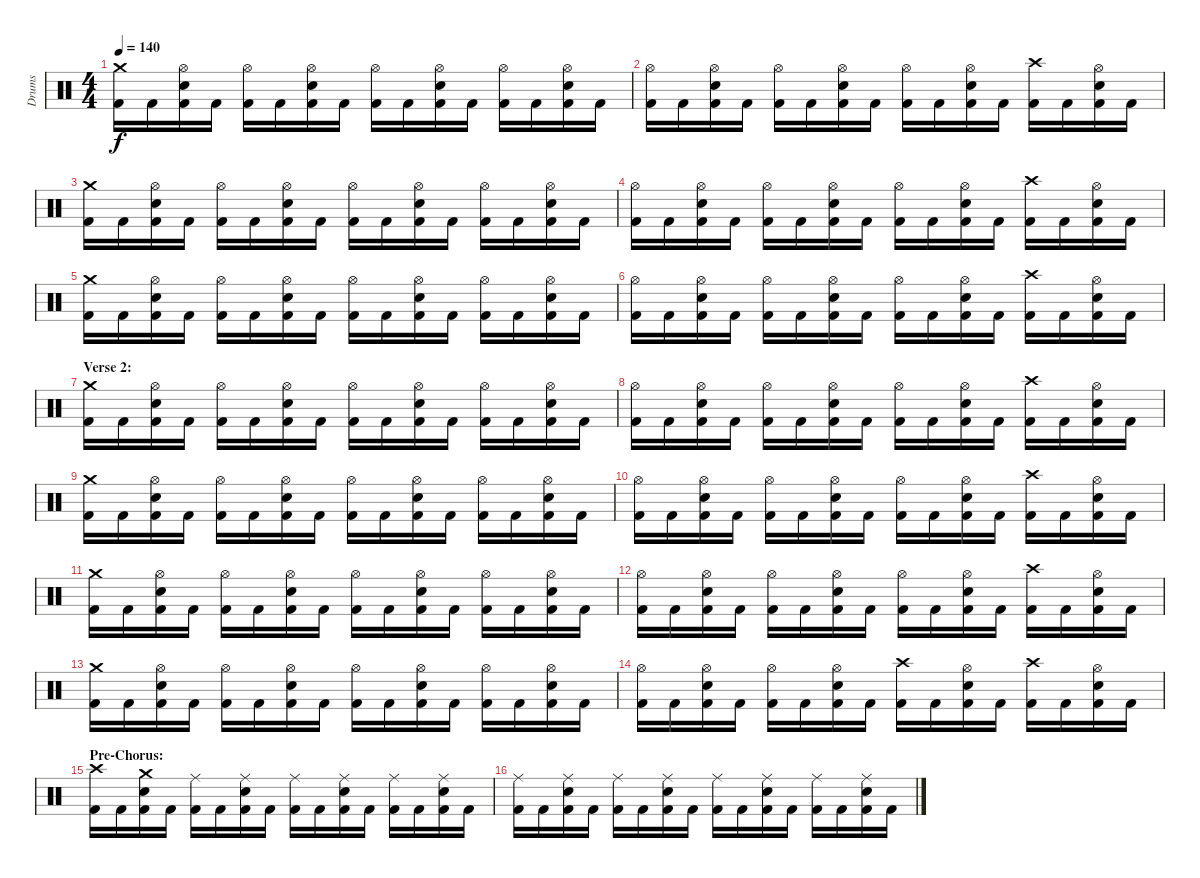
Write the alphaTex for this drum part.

\track ("Drums" "Drums") {instrument percussion}
\staff {score}
\articulation defaults
\ts (4 4)
\tempo 140
\clef neutral
\ks c
("Crash medium (hit)" "Kick (hit) 2").16{dy f} "Kick (hit) 2".16 ("Hi-Hat (open)" "Snare (hit) 2" "Kick (hit) 2").16 "Kick (hit) 2".16 ("Hi-Hat (open)" "Kick (hit) 2").16 "Kick (hit) 2".16 ("Hi-Hat (open)" "Snare (hit) 2" "Kick (hit) 2").16 "Kick (hit) 2".16 ("Hi-Hat (open)" "Kick (hit) 2").16 "Kick (hit) 2".16 ("Hi-Hat (open)" "Snare (hit) 2" "Kick (hit) 2").16 "Kick (hit) 2".16 ("Hi-Hat (open)" "Kick (hit) 2").16 "Kick (hit) 2".16 ("Hi-Hat (open)" "Snare (hit) 2" "Kick (hit) 2").16 "Kick (hit) 2".16 |
("Hi-Hat (open)" "Kick (hit) 2").16 "Kick (hit) 2".16 ("Hi-Hat (open)" "Snare (hit) 2" "Kick (hit) 2").16 "Kick (hit) 2".16 ("Hi-Hat (open)" "Kick (hit) 2").16 "Kick (hit) 2".16 ("Hi-Hat (open)" "Snare (hit) 2" "Kick (hit) 2").16 "Kick (hit) 2".16 ("Hi-Hat (open)" "Kick (hit) 2").16 "Kick (hit) 2".16 ("Hi-Hat (open)" "Snare (hit) 2" "Kick (hit) 2").16 "Kick (hit) 2".16 ("Crash high (hit)" "Kick (hit) 2").16 "Kick (hit) 2".16 ("Hi-Hat (open)" "Snare (hit) 2" "Kick (hit) 2").16 "Kick (hit) 2".16 |
("Crash medium (hit)" "Kick (hit) 2").16 "Kick (hit) 2".16 ("Hi-Hat (open)" "Snare (hit) 2" "Kick (hit) 2").16 "Kick (hit) 2".16 ("Hi-Hat (open)" "Kick (hit) 2").16 "Kick (hit) 2".16 ("Hi-Hat (open)" "Snare (hit) 2" "Kick (hit) 2").16 "Kick (hit) 2".16 ("Hi-Hat (open)" "Kick (hit) 2").16 "Kick (hit) 2".16 ("Hi-Hat (open)" "Snare (hit) 2" "Kick (hit) 2").16 "Kick (hit) 2".16 ("Hi-Hat (open)" "Kick (hit) 2").16 "Kick (hit) 2".16 ("Hi-Hat (open)" "Snare (hit) 2" "Kick (hit) 2").16 "Kick (hit) 2".16 |
("Hi-Hat (open)" "Kick (hit) 2").16 "Kick (hit) 2".16 ("Hi-Hat (open)" "Snare (hit) 2" "Kick (hit) 2").16 "Kick (hit) 2".16 ("Hi-Hat (open)" "Kick (hit) 2").16 "Kick (hit) 2".16 ("Hi-Hat (open)" "Snare (hit) 2" "Kick (hit) 2").16 "Kick (hit) 2".16 ("Hi-Hat (open)" "Kick (hit) 2").16 "Kick (hit) 2".16 ("Hi-Hat (open)" "Snare (hit) 2" "Kick (hit) 2").16 "Kick (hit) 2".16 ("Crash high (hit)" "Kick (hit) 2").16 "Kick (hit) 2".16 ("Hi-Hat (open)" "Snare (hit) 2" "Kick (hit) 2").16 "Kick (hit) 2".16 |
("Crash medium (hit)" "Kick (hit) 2").16 "Kick (hit) 2".16 ("Hi-Hat (open)" "Snare (hit) 2" "Kick (hit) 2").16 "Kick (hit) 2".16 ("Hi-Hat (open)" "Kick (hit) 2").16 "Kick (hit) 2".16 ("Hi-Hat (open)" "Snare (hit) 2" "Kick (hit) 2").16 "Kick (hit) 2".16 ("Hi-Hat (open)" "Kick (hit) 2").16 "Kick (hit) 2".16 ("Hi-Hat (open)" "Snare (hit) 2" "Kick (hit) 2").16 "Kick (hit) 2".16 ("Hi-Hat (open)" "Kick (hit) 2").16 "Kick (hit) 2".16 ("Hi-Hat (open)" "Snare (hit) 2" "Kick (hit) 2").16 "Kick (hit) 2".16 |
("Hi-Hat (open)" "Kick (hit) 2").16 "Kick (hit) 2".16 ("Hi-Hat (open)" "Snare (hit) 2" "Kick (hit) 2").16 "Kick (hit) 2".16 ("Hi-Hat (open)" "Kick (hit) 2").16 "Kick (hit) 2".16 ("Hi-Hat (open)" "Snare (hit) 2" "Kick (hit) 2").16 "Kick (hit) 2".16 ("Hi-Hat (open)" "Kick (hit) 2").16 "Kick (hit) 2".16 ("Hi-Hat (open)" "Snare (hit) 2" "Kick (hit) 2").16 "Kick (hit) 2".16 ("Crash high (hit)" "Kick (hit) 2").16 "Kick (hit) 2".16 ("Hi-Hat (open)" "Snare (hit) 2" "Kick (hit) 2").16 "Kick (hit) 2".16 |
\section ("" "Verse 2:")
("Crash medium (hit)" "Kick (hit) 2").16 "Kick (hit) 2".16 ("Hi-Hat (open)" "Snare (hit) 2" "Kick (hit) 2").16 "Kick (hit) 2".16 ("Hi-Hat (open)" "Kick (hit) 2").16 "Kick (hit) 2".16 ("Hi-Hat (open)" "Snare (hit) 2" "Kick (hit) 2").16 "Kick (hit) 2".16 ("Hi-Hat (open)" "Kick (hit) 2").16 "Kick (hit) 2".16 ("Hi-Hat (open)" "Snare (hit) 2" "Kick (hit) 2").16 "Kick (hit) 2".16 ("Hi-Hat (open)" "Kick (hit) 2").16 "Kick (hit) 2".16 ("Hi-Hat (open)" "Snare (hit) 2" "Kick (hit) 2").16 "Kick (hit) 2".16 |
("Hi-Hat (open)" "Kick (hit) 2").16 "Kick (hit) 2".16 ("Hi-Hat (open)" "Snare (hit) 2" "Kick (hit) 2").16 "Kick (hit) 2".16 ("Hi-Hat (open)" "Kick (hit) 2").16 "Kick (hit) 2".16 ("Hi-Hat (open)" "Snare (hit) 2" "Kick (hit) 2").16 "Kick (hit) 2".16 ("Hi-Hat (open)" "Kick (hit) 2").16 "Kick (hit) 2".16 ("Hi-Hat (open)" "Snare (hit) 2" "Kick (hit) 2").16 "Kick (hit) 2".16 ("Crash high (hit)" "Kick (hit) 2").16 "Kick (hit) 2".16 ("Hi-Hat (open)" "Snare (hit) 2" "Kick (hit) 2").16 "Kick (hit) 2".16 |
("Crash medium (hit)" "Kick (hit) 2").16 "Kick (hit) 2".16 ("Hi-Hat (open)" "Snare (hit) 2" "Kick (hit) 2").16 "Kick (hit) 2".16 ("Hi-Hat (open)" "Kick (hit) 2").16 "Kick (hit) 2".16 ("Hi-Hat (open)" "Snare (hit) 2" "Kick (hit) 2").16 "Kick (hit) 2".16 ("Hi-Hat (open)" "Kick (hit) 2").16 "Kick (hit) 2".16 ("Hi-Hat (open)" "Snare (hit) 2" "Kick (hit) 2").16 "Kick (hit) 2".16 ("Hi-Hat (open)" "Kick (hit) 2").16 "Kick (hit) 2".16 ("Hi-Hat (open)" "Snare (hit) 2" "Kick (hit) 2").16 "Kick (hit) 2".16 |
("Hi-Hat (open)" "Kick (hit) 2").16 "Kick (hit) 2".16 ("Hi-Hat (open)" "Snare (hit) 2" "Kick (hit) 2").16 "Kick (hit) 2".16 ("Hi-Hat (open)" "Kick (hit) 2").16 "Kick (hit) 2".16 ("Hi-Hat (open)" "Snare (hit) 2" "Kick (hit) 2").16 "Kick (hit) 2".16 ("Hi-Hat (open)" "Kick (hit) 2").16 "Kick (hit) 2".16 ("Hi-Hat (open)" "Snare (hit) 2" "Kick (hit) 2").16 "Kick (hit) 2".16 ("Crash high (hit)" "Kick (hit) 2").16 "Kick (hit) 2".16 ("Hi-Hat (open)" "Snare (hit) 2" "Kick (hit) 2").16 "Kick (hit) 2".16 |
("Crash medium (hit)" "Kick (hit) 2").16 "Kick (hit) 2".16 ("Hi-Hat (open)" "Snare (hit) 2" "Kick (hit) 2").16 "Kick (hit) 2".16 ("Hi-Hat (open)" "Kick (hit) 2").16 "Kick (hit) 2".16 ("Hi-Hat (open)" "Snare (hit) 2" "Kick (hit) 2").16 "Kick (hit) 2".16 ("Hi-Hat (open)" "Kick (hit) 2").16 "Kick (hit) 2".16 ("Hi-Hat (open)" "Snare (hit) 2" "Kick (hit) 2").16 "Kick (hit) 2".16 ("Hi-Hat (open)" "Kick (hit) 2").16 "Kick (hit) 2".16 ("Hi-Hat (open)" "Snare (hit) 2" "Kick (hit) 2").16 "Kick (hit) 2".16 |
("Hi-Hat (open)" "Kick (hit) 2").16 "Kick (hit) 2".16 ("Hi-Hat (open)" "Snare (hit) 2" "Kick (hit) 2").16 "Kick (hit) 2".16 ("Hi-Hat (open)" "Kick (hit) 2").16 "Kick (hit) 2".16 ("Hi-Hat (open)" "Snare (hit) 2" "Kick (hit) 2").16 "Kick (hit) 2".16 ("Hi-Hat (open)" "Kick (hit) 2").16 "Kick (hit) 2".16 ("Hi-Hat (open)" "Snare (hit) 2" "Kick (hit) 2").16 "Kick (hit) 2".16 ("Crash high (hit)" "Kick (hit) 2").16 "Kick (hit) 2".16 ("Hi-Hat (open)" "Snare (hit) 2" "Kick (hit) 2").16 "Kick (hit) 2".16 |
("Crash medium (hit)" "Kick (hit) 2").16 "Kick (hit) 2".16 ("Hi-Hat (open)" "Snare (hit) 2" "Kick (hit) 2").16 "Kick (hit) 2".16 ("Hi-Hat (open)" "Kick (hit) 2").16 "Kick (hit) 2".16 ("Hi-Hat (open)" "Snare (hit) 2" "Kick (hit) 2").16 "Kick (hit) 2".16 ("Hi-Hat (open)" "Kick (hit) 2").16 "Kick (hit) 2".16 ("Hi-Hat (open)" "Snare (hit) 2" "Kick (hit) 2").16 "Kick (hit) 2".16 ("Hi-Hat (open)" "Kick (hit) 2").16 "Kick (hit) 2".16 ("Hi-Hat (open)" "Snare (hit) 2" "Kick (hit) 2").16 "Kick (hit) 2".16 |
("Hi-Hat (open)" "Kick (hit) 2").16 "Kick (hit) 2".16 ("Hi-Hat (open)" "Snare (hit) 2" "Kick (hit) 2").16 "Kick (hit) 2".16 ("Hi-Hat (open)" "Kick (hit) 2").16 "Kick (hit) 2".16 ("Hi-Hat (open)" "Snare (hit) 2" "Kick (hit) 2").16 "Kick (hit) 2".16 ("Crash high (hit)" "Kick (hit) 2").16 "Kick (hit) 2".16 ("Hi-Hat (open)" "Snare (hit) 2" "Kick (hit) 2").16 "Kick (hit) 2".16 ("Crash high (hit)" "Kick (hit) 2").16 "Kick (hit) 2".16 ("Hi-Hat (open)" "Snare (hit) 2" "Kick (hit) 2").16 "Kick (hit) 2".16 |
\section ("" "Pre-Chorus:")
("Crash high (hit)" "Kick (hit) 2").16 "Kick (hit) 2".16 ("Crash medium (hit)" "Snare (hit) 2" "Kick (hit) 2").16 "Kick (hit) 2".16 ("Ride (middle)" "Kick (hit) 2").16 "Kick (hit) 2".16 ("Ride (middle)" "Snare (hit) 2" "Kick (hit) 2").16 "Kick (hit) 2".16 ("Ride (middle)" "Kick (hit) 2").16 "Kick (hit) 2".16 ("Ride (middle)" "Snare (hit) 2" "Kick (hit) 2").16 "Kick (hit) 2".16 ("Ride (middle)" "Kick (hit) 2").16 "Kick (hit) 2".16 ("Ride (middle)" "Snare (hit) 2" "Kick (hit) 2").16 "Kick (hit) 2".16 |
("Ride (middle)" "Kick (hit) 2").16 "Kick (hit) 2".16 ("Ride (middle)" "Snare (hit) 2" "Kick (hit) 2").16 "Kick (hit) 2".16 ("Ride (middle)" "Kick (hit) 2").16 "Kick (hit) 2".16 ("Ride (middle)" "Snare (hit) 2" "Kick (hit) 2").16 "Kick (hit) 2".16 ("Ride (middle)" "Kick (hit) 2").16 "Kick (hit) 2".16 ("Ride (middle)" "Snare (hit) 2" "Kick (hit) 2").16 "Kick (hit) 2".16 ("Ride (middle)" "Kick (hit) 2").16 "Kick (hit) 2".16 ("Ride (middle)" "Snare (hit) 2" "Kick (hit) 2").16 "Kick (hit) 2".16
